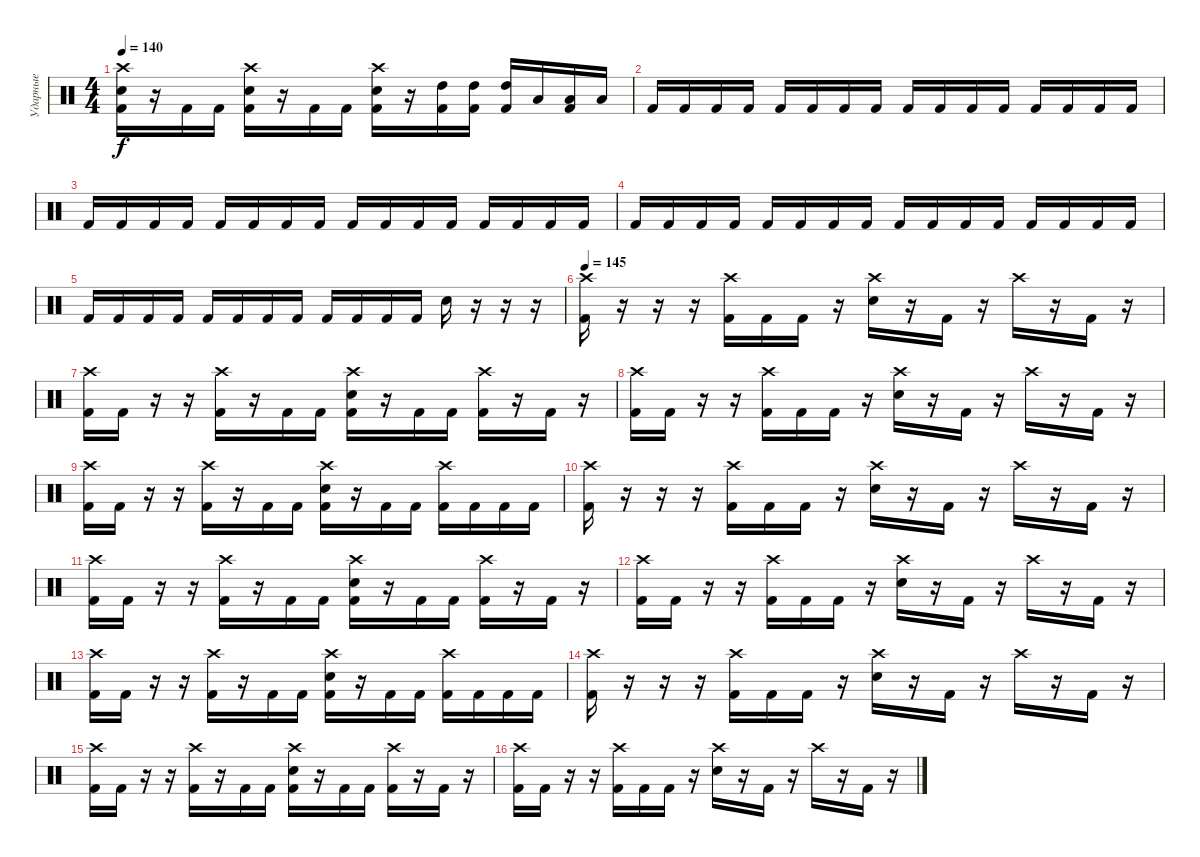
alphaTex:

\track ("Ударные" "Ударные") {instrument percussion}
\staff {score}
\articulation defaults
\ts (4 4)
\tempo 140
\clef neutral
\ks c
("Crash high (hit)" "Electric Snare (hit)" "Kick (hit) 2").16{dy f} r.16 "Kick (hit) 2".16 "Kick (hit) 2".16 ("Crash high (hit)" "Electric Snare (hit)" "Kick (hit) 2").16 r.16 "Kick (hit) 2".16 "Kick (hit) 2".16 ("Crash high (hit)" "Electric Snare (hit)" "Kick (hit) 2").16 r.16 ("High Tom (hit)" "Kick (hit) 2").16 ("High Tom (hit)" "Kick (hit) 2").16 ("High Tom (hit)" "Kick (hit) 2").16 "Low Tom (hit)".16 ("Low Tom (hit)" "Kick (hit) 2").16 "Low Tom (hit)".16 |
"Kick (hit) 2".16 "Kick (hit) 2".16 "Kick (hit) 2".16 "Kick (hit) 2".16 "Kick (hit) 2".16 "Kick (hit) 2".16 "Kick (hit) 2".16 "Kick (hit) 2".16 "Kick (hit) 2".16 "Kick (hit) 2".16 "Kick (hit) 2".16 "Kick (hit) 2".16 "Kick (hit) 2".16 "Kick (hit) 2".16 "Kick (hit) 2".16 "Kick (hit) 2".16 |
"Kick (hit) 2".16 "Kick (hit) 2".16 "Kick (hit) 2".16 "Kick (hit) 2".16 "Kick (hit) 2".16 "Kick (hit) 2".16 "Kick (hit) 2".16 "Kick (hit) 2".16 "Kick (hit) 2".16 "Kick (hit) 2".16 "Kick (hit) 2".16 "Kick (hit) 2".16 "Kick (hit) 2".16 "Kick (hit) 2".16 "Kick (hit) 2".16 "Kick (hit) 2".16 |
"Kick (hit) 2".16 "Kick (hit) 2".16 "Kick (hit) 2".16 "Kick (hit) 2".16 "Kick (hit) 2".16 "Kick (hit) 2".16 "Kick (hit) 2".16 "Kick (hit) 2".16 "Kick (hit) 2".16 "Kick (hit) 2".16 "Kick (hit) 2".16 "Kick (hit) 2".16 "Kick (hit) 2".16 "Kick (hit) 2".16 "Kick (hit) 2".16 "Kick (hit) 2".16 |
"Kick (hit) 2".16 "Kick (hit) 2".16 "Kick (hit) 2".16 "Kick (hit) 2".16 "Kick (hit) 2".16 "Kick (hit) 2".16 "Kick (hit) 2".16 "Kick (hit) 2".16 "Kick (hit) 2".16 "Kick (hit) 2".16 "Kick (hit) 2".16 "Kick (hit) 2".16 "Electric Snare (hit)".16 r.16 r.16 r.16 |
\tempo 145
("Crash high (hit)" "Kick (hit) 2").16 r.16 r.16 r.16 ("Crash high (hit)" "Kick (hit) 2").16 "Kick (hit) 2".16 "Kick (hit) 2".16 r.16 ("Crash high (hit)" "Electric Snare (hit)").16 r.16 "Kick (hit) 2".16 r.16 "Crash high (hit)".16 r.16 "Kick (hit) 2".16 r.16 |
("Crash high (hit)" "Kick (hit) 2").16 "Kick (hit) 2".16 r.16 r.16 ("Crash high (hit)" "Kick (hit) 2").16 r.16 "Kick (hit) 2".16 "Kick (hit) 2".16 ("Crash high (hit)" "Electric Snare (hit)" "Kick (hit) 2").16 r.16 "Kick (hit) 2".16 "Kick (hit) 2".16 ("Crash high (hit)" "Kick (hit) 2").16 r.16 "Kick (hit) 2".16 r.16 |
("Crash high (hit)" "Kick (hit) 2").16 "Kick (hit) 2".16 r.16 r.16 ("Crash high (hit)" "Kick (hit) 2").16 "Kick (hit) 2".16 "Kick (hit) 2".16 r.16 ("Crash high (hit)" "Electric Snare (hit)").16 r.16 "Kick (hit) 2".16 r.16 "Crash high (hit)".16 r.16 "Kick (hit) 2".16 r.16 |
("Crash high (hit)" "Kick (hit) 2").16 "Kick (hit) 2".16 r.16 r.16 ("Crash high (hit)" "Kick (hit) 2").16 r.16 "Kick (hit) 2".16 "Kick (hit) 2".16 ("Crash high (hit)" "Electric Snare (hit)" "Kick (hit) 2").16 r.16 "Kick (hit) 2".16 "Kick (hit) 2".16 ("Crash high (hit)" "Kick (hit) 2").16 "Kick (hit) 2".16 "Kick (hit) 2".16 "Kick (hit) 2".16 |
("Crash high (hit)" "Kick (hit) 2").16 r.16 r.16 r.16 ("Crash high (hit)" "Kick (hit) 2").16 "Kick (hit) 2".16 "Kick (hit) 2".16 r.16 ("Crash high (hit)" "Electric Snare (hit)").16 r.16 "Kick (hit) 2".16 r.16 "Crash high (hit)".16 r.16 "Kick (hit) 2".16 r.16 |
("Crash high (hit)" "Kick (hit) 2").16 "Kick (hit) 2".16 r.16 r.16 ("Crash high (hit)" "Kick (hit) 2").16 r.16 "Kick (hit) 2".16 "Kick (hit) 2".16 ("Crash high (hit)" "Electric Snare (hit)" "Kick (hit) 2").16 r.16 "Kick (hit) 2".16 "Kick (hit) 2".16 ("Crash high (hit)" "Kick (hit) 2").16 r.16 "Kick (hit) 2".16 r.16 |
("Crash high (hit)" "Kick (hit) 2").16 "Kick (hit) 2".16 r.16 r.16 ("Crash high (hit)" "Kick (hit) 2").16 "Kick (hit) 2".16 "Kick (hit) 2".16 r.16 ("Crash high (hit)" "Electric Snare (hit)").16 r.16 "Kick (hit) 2".16 r.16 "Crash high (hit)".16 r.16 "Kick (hit) 2".16 r.16 |
("Crash high (hit)" "Kick (hit) 2").16 "Kick (hit) 2".16 r.16 r.16 ("Crash high (hit)" "Kick (hit) 2").16 r.16 "Kick (hit) 2".16 "Kick (hit) 2".16 ("Crash high (hit)" "Electric Snare (hit)" "Kick (hit) 2").16 r.16 "Kick (hit) 2".16 "Kick (hit) 2".16 ("Crash high (hit)" "Kick (hit) 2").16 "Kick (hit) 2".16 "Kick (hit) 2".16 "Kick (hit) 2".16 |
("Crash high (hit)" "Kick (hit) 2").16 r.16 r.16 r.16 ("Crash high (hit)" "Kick (hit) 2").16 "Kick (hit) 2".16 "Kick (hit) 2".16 r.16 ("Crash high (hit)" "Electric Snare (hit)").16 r.16 "Kick (hit) 2".16 r.16 "Crash high (hit)".16 r.16 "Kick (hit) 2".16 r.16 |
("Crash high (hit)" "Kick (hit) 2").16 "Kick (hit) 2".16 r.16 r.16 ("Crash high (hit)" "Kick (hit) 2").16 r.16 "Kick (hit) 2".16 "Kick (hit) 2".16 ("Crash high (hit)" "Electric Snare (hit)" "Kick (hit) 2").16 r.16 "Kick (hit) 2".16 "Kick (hit) 2".16 ("Crash high (hit)" "Kick (hit) 2").16 r.16 "Kick (hit) 2".16 r.16 |
("Crash high (hit)" "Kick (hit) 2").16 "Kick (hit) 2".16 r.16 r.16 ("Crash high (hit)" "Kick (hit) 2").16 "Kick (hit) 2".16 "Kick (hit) 2".16 r.16 ("Crash high (hit)" "Electric Snare (hit)").16 r.16 "Kick (hit) 2".16 r.16 "Crash high (hit)".16 r.16 "Kick (hit) 2".16 r.16
